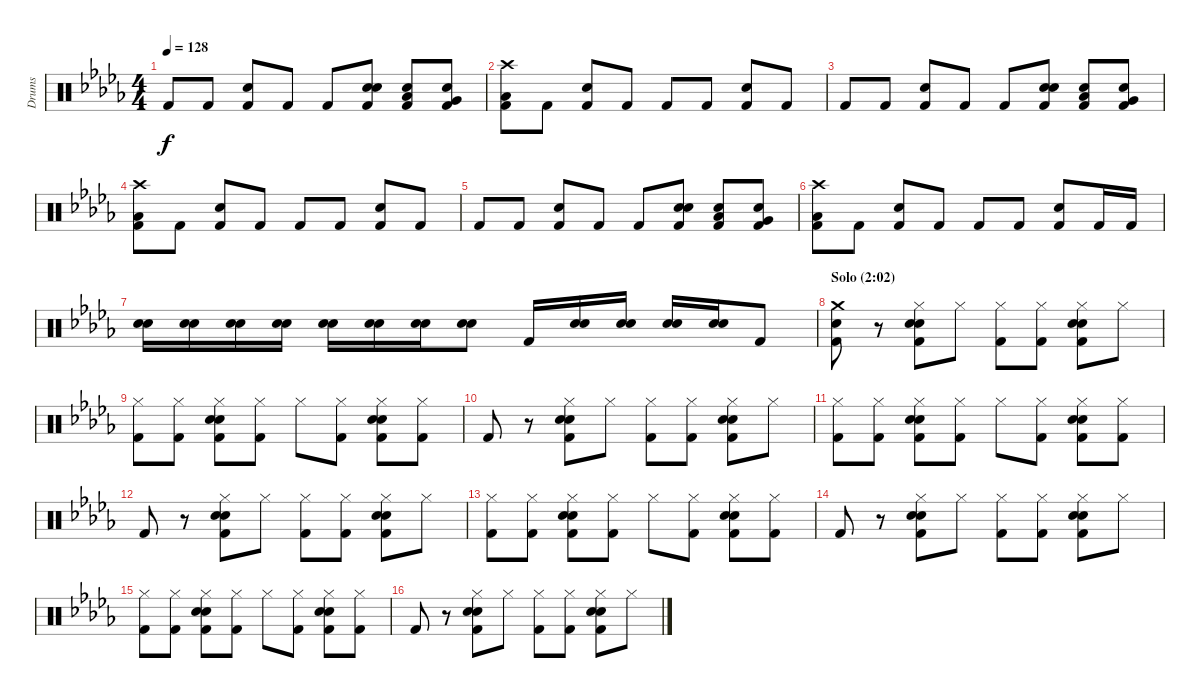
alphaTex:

\track ("Drums" "Drums") {instrument percussion}
\staff {score}
\articulation defaults
\ts (4 4)
\tempo 128
\clef neutral
\ks bbminor "Kick (hit) 2".8{dy f} "Kick (hit) 2".8
("Kick (hit) 2" "Electric Snare (hit)").8 "Kick (hit) 2".8 "Kick (hit) 2".8 ("Kick (hit) 2" "Electric Snare (hit)" "Electric Snare (hit)").8 ("Kick (hit) 2" "Low Tom (hit)" "Electric Snare (hit)").8 ("Kick (hit) 2" "Very Low Tom (hit)" "Electric Snare (hit)").8 |
("Kick (hit) 2" "Low Floor Tom (hit)" "Crash high (hit)").8 "Kick (hit) 2".8 ("Kick (hit) 2" "Electric Snare (hit)").8 "Kick (hit) 2".8 "Kick (hit) 2".8 "Kick (hit) 2".8 ("Kick (hit) 2" "Electric Snare (hit)").8 "Kick (hit) 2".8 |
"Kick (hit) 2".8 "Kick (hit) 2".8 ("Kick (hit) 2" "Electric Snare (hit)").8 "Kick (hit) 2".8 "Kick (hit) 2".8 ("Kick (hit) 2" "Electric Snare (hit)" "Electric Snare (hit)").8 ("Kick (hit) 2" "Low Tom (hit)" "Electric Snare (hit)").8 ("Kick (hit) 2" "Very Low Tom (hit)" "Electric Snare (hit)").8 |
("Kick (hit) 2" "Low Floor Tom (hit)" "Crash high (hit)").8 "Kick (hit) 2".8 ("Kick (hit) 2" "Electric Snare (hit)").8 "Kick (hit) 2".8 "Kick (hit) 2".8 "Kick (hit) 2".8 ("Kick (hit) 2" "Electric Snare (hit)").8 "Kick (hit) 2".8 |
"Kick (hit) 2".8 "Kick (hit) 2".8 ("Kick (hit) 2" "Electric Snare (hit)").8 "Kick (hit) 2".8 "Kick (hit) 2".8 ("Kick (hit) 2" "Electric Snare (hit)" "Electric Snare (hit)").8 ("Kick (hit) 2" "Low Tom (hit)" "Electric Snare (hit)").8 ("Kick (hit) 2" "Very Low Tom (hit)" "Electric Snare (hit)").8 |
("Kick (hit) 2" "Low Floor Tom (hit)" "Crash high (hit)").8 "Kick (hit) 2".8 ("Kick (hit) 2" "Electric Snare (hit)").8 "Kick (hit) 2".8 "Kick (hit) 2".8 "Kick (hit) 2".8 ("Kick (hit) 2" "Electric Snare (hit)").8 "Kick (hit) 2".16 "Kick (hit) 2".16 |
("Electric Snare (hit)" "Electric Snare (hit)").16 ("Electric Snare (hit)" "Electric Snare (hit)").16 ("Electric Snare (hit)" "Electric Snare (hit)").16 ("Electric Snare (hit)" "Electric Snare (hit)").16 ("Electric Snare (hit)" "Electric Snare (hit)").16 ("Electric Snare (hit)" "Electric Snare (hit)").16 ("Electric Snare (hit)" "Electric Snare (hit)").16 ("Electric Snare (hit)" "Electric Snare (hit)").8 "Kick (hit) 2".16 ("Electric Snare (hit)" "Electric Snare (hit)").16 ("Electric Snare (hit)" "Electric Snare (hit)").16 ("Electric Snare (hit)" "Electric Snare (hit)").16 ("Electric Snare (hit)" "Electric Snare (hit)").16 "Kick (hit) 2".8 |
\section ("" "Solo (2:02)")
("Kick (hit) 2" "Electric Snare (hit)" "Crash medium (hit)").8 r.8 ("Kick (hit) 2" "Hi-Hat (closed)" "Electric Snare (hit)" "Electric Snare (hit)").8 "Hi-Hat (closed)".8 ("Kick (hit) 2" "Hi-Hat (closed)").8 ("Kick (hit) 2" "Hi-Hat (closed)").8 ("Kick (hit) 2" "Hi-Hat (closed)" "Electric Snare (hit)" "Electric Snare (hit)").8 "Hi-Hat (closed)".8 |
("Kick (hit) 2" "Hi-Hat (closed)").8 ("Kick (hit) 2" "Hi-Hat (closed)").8 ("Kick (hit) 2" "Hi-Hat (closed)" "Electric Snare (hit)" "Electric Snare (hit)").8 ("Kick (hit) 2" "Hi-Hat (closed)").8 "Hi-Hat (closed)".8 ("Kick (hit) 2" "Hi-Hat (closed)").8 ("Kick (hit) 2" "Hi-Hat (closed)" "Electric Snare (hit)" "Electric Snare (hit)").8 ("Kick (hit) 2" "Hi-Hat (closed)").8 |
"Kick (hit) 2".8 r.8 ("Kick (hit) 2" "Hi-Hat (closed)" "Electric Snare (hit)" "Electric Snare (hit)").8 "Hi-Hat (closed)".8 ("Kick (hit) 2" "Hi-Hat (closed)").8 ("Kick (hit) 2" "Hi-Hat (closed)").8 ("Kick (hit) 2" "Hi-Hat (closed)" "Electric Snare (hit)" "Electric Snare (hit)").8 "Hi-Hat (closed)".8 |
("Kick (hit) 2" "Hi-Hat (closed)").8 ("Kick (hit) 2" "Hi-Hat (closed)").8 ("Kick (hit) 2" "Hi-Hat (closed)" "Electric Snare (hit)" "Electric Snare (hit)").8 ("Kick (hit) 2" "Hi-Hat (closed)").8 "Hi-Hat (closed)".8 ("Kick (hit) 2" "Hi-Hat (closed)").8 ("Kick (hit) 2" "Hi-Hat (closed)" "Electric Snare (hit)" "Electric Snare (hit)").8 ("Kick (hit) 2" "Hi-Hat (closed)").8 |
"Kick (hit) 2".8 r.8 ("Kick (hit) 2" "Hi-Hat (closed)" "Electric Snare (hit)" "Electric Snare (hit)").8 "Hi-Hat (closed)".8 ("Kick (hit) 2" "Hi-Hat (closed)").8 ("Kick (hit) 2" "Hi-Hat (closed)").8 ("Kick (hit) 2" "Hi-Hat (closed)" "Electric Snare (hit)" "Electric Snare (hit)").8 "Hi-Hat (closed)".8 |
("Kick (hit) 2" "Hi-Hat (closed)").8 ("Kick (hit) 2" "Hi-Hat (closed)").8 ("Kick (hit) 2" "Hi-Hat (closed)" "Electric Snare (hit)" "Electric Snare (hit)").8 ("Kick (hit) 2" "Hi-Hat (closed)").8 "Hi-Hat (closed)".8 ("Kick (hit) 2" "Hi-Hat (closed)").8 ("Kick (hit) 2" "Hi-Hat (closed)" "Electric Snare (hit)" "Electric Snare (hit)").8 ("Kick (hit) 2" "Hi-Hat (closed)").8 |
"Kick (hit) 2".8 r.8 ("Kick (hit) 2" "Hi-Hat (closed)" "Electric Snare (hit)" "Electric Snare (hit)").8 "Hi-Hat (closed)".8 ("Kick (hit) 2" "Hi-Hat (closed)").8 ("Kick (hit) 2" "Hi-Hat (closed)").8 ("Kick (hit) 2" "Hi-Hat (closed)" "Electric Snare (hit)" "Electric Snare (hit)").8 "Hi-Hat (closed)".8 |
("Kick (hit) 2" "Hi-Hat (closed)").8 ("Kick (hit) 2" "Hi-Hat (closed)").8 ("Kick (hit) 2" "Hi-Hat (closed)" "Electric Snare (hit)" "Electric Snare (hit)").8 ("Kick (hit) 2" "Hi-Hat (closed)").8 "Hi-Hat (closed)".8 ("Kick (hit) 2" "Hi-Hat (closed)").8 ("Kick (hit) 2" "Hi-Hat (closed)" "Electric Snare (hit)" "Electric Snare (hit)").8 ("Kick (hit) 2" "Hi-Hat (closed)").8 |
"Kick (hit) 2".8 r.8 ("Kick (hit) 2" "Hi-Hat (closed)" "Electric Snare (hit)" "Electric Snare (hit)").8 "Hi-Hat (closed)".8 ("Kick (hit) 2" "Hi-Hat (closed)").8 ("Kick (hit) 2" "Hi-Hat (closed)").8 ("Kick (hit) 2" "Hi-Hat (closed)" "Electric Snare (hit)" "Electric Snare (hit)").8 "Hi-Hat (closed)".8
